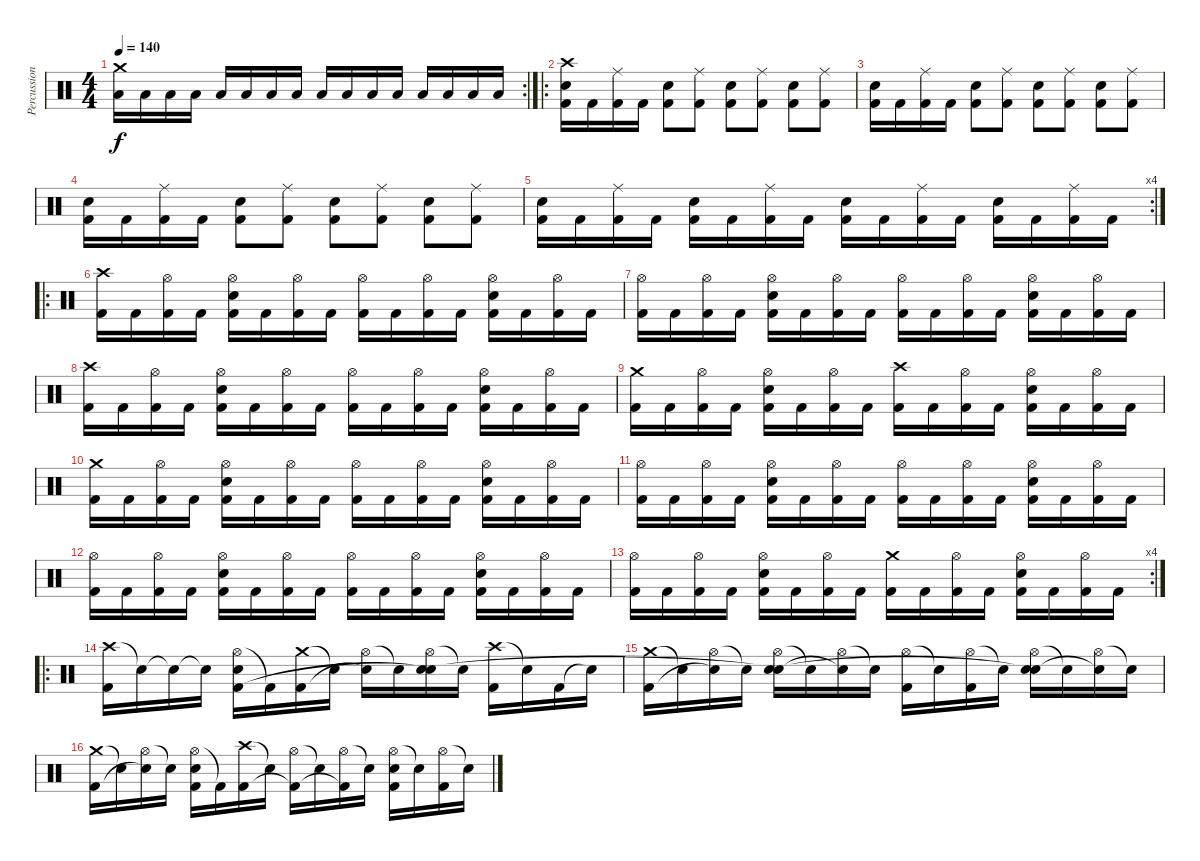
\track ("Percussion" "Percussion") {instrument percussion}
\staff {score}
\articulation defaults
\rc 2
\ts (4 4)
\tempo 140
\clef neutral
\ks c
("Crash medium (hit)" "Low Floor Tom (hit)").16{dy f} "Low Floor Tom (hit)".16 "Low Floor Tom (hit)".16 "Low Floor Tom (hit)".16 "Low Floor Tom (hit)".16 "Low Floor Tom (hit)".16 "Low Floor Tom (hit)".16 "Low Floor Tom (hit)".16 "Low Floor Tom (hit)".16 "Low Floor Tom (hit)".16 "Low Floor Tom (hit)".16 "Low Floor Tom (hit)".16 "Low Floor Tom (hit)".16 "Low Floor Tom (hit)".16 "Low Floor Tom (hit)".16 "Low Floor Tom (hit)".16 |
\ro
("Crash high (hit)" "Snare (hit) 2" "Kick (hit) 2").16 "Kick (hit) 2".16 ("Ride (middle)" "Kick (hit) 2").16 "Kick (hit) 2".16 ("Snare (hit) 2" "Kick (hit) 2").8 ("Ride (middle)" "Kick (hit) 2").8 ("Snare (hit) 2" "Kick (hit) 2").8 ("Ride (middle)" "Kick (hit) 2").8 ("Snare (hit) 2" "Kick (hit) 2").8 ("Ride (middle)" "Kick (hit) 2").8 |
("Snare (hit) 2" "Kick (hit) 2").16 "Kick (hit) 2".16 ("Ride (middle)" "Kick (hit) 2").16 "Kick (hit) 2".16 ("Snare (hit) 2" "Kick (hit) 2").8 ("Ride (middle)" "Kick (hit) 2").8 ("Snare (hit) 2" "Kick (hit) 2").8 ("Ride (middle)" "Kick (hit) 2").8 ("Snare (hit) 2" "Kick (hit) 2").8 ("Ride (middle)" "Kick (hit) 2").8 |
("Snare (hit) 2" "Kick (hit) 2").16 "Kick (hit) 2".16 ("Ride (middle)" "Kick (hit) 2").16 "Kick (hit) 2".16 ("Snare (hit) 2" "Kick (hit) 2").8 ("Ride (middle)" "Kick (hit) 2").8 ("Snare (hit) 2" "Kick (hit) 2").8 ("Ride (middle)" "Kick (hit) 2").8 ("Snare (hit) 2" "Kick (hit) 2").8 ("Ride (middle)" "Kick (hit) 2").8 |
\rc 4
("Snare (hit) 2" "Kick (hit) 2").16 "Kick (hit) 2".16 ("Ride (middle)" "Kick (hit) 2").16 "Kick (hit) 2".16 ("Snare (hit) 2" "Kick (hit) 2").16 "Kick (hit) 2".16 ("Ride (middle)" "Kick (hit) 2").16 "Kick (hit) 2".16 ("Snare (hit) 2" "Kick (hit) 2").16 "Kick (hit) 2".16 ("Ride (middle)" "Kick (hit) 2").16 "Kick (hit) 2".16 ("Snare (hit) 2" "Kick (hit) 2").16 "Kick (hit) 2".16 ("Ride (middle)" "Kick (hit) 2").16 "Kick (hit) 2".16 |
\ro
("Crash high (hit)" "Kick (hit) 2").16 "Kick (hit) 2".16 ("Hi-Hat (open)" "Kick (hit) 2").16 "Kick (hit) 2".16 ("Hi-Hat (open)" "Snare (hit) 2" "Kick (hit) 2").16 "Kick (hit) 2".16 ("Hi-Hat (open)" "Kick (hit) 2").16 "Kick (hit) 2".16 ("Hi-Hat (open)" "Kick (hit) 2").16 "Kick (hit) 2".16 ("Hi-Hat (open)" "Kick (hit) 2").16 "Kick (hit) 2".16 ("Hi-Hat (open)" "Snare (hit) 2" "Kick (hit) 2").16 "Kick (hit) 2".16 ("Hi-Hat (open)" "Kick (hit) 2").16 "Kick (hit) 2".16 |
("Hi-Hat (open)" "Kick (hit) 2").16 "Kick (hit) 2".16 ("Hi-Hat (open)" "Kick (hit) 2").16 "Kick (hit) 2".16 ("Hi-Hat (open)" "Snare (hit) 2" "Kick (hit) 2").16 "Kick (hit) 2".16 ("Hi-Hat (open)" "Kick (hit) 2").16 "Kick (hit) 2".16 ("Hi-Hat (open)" "Kick (hit) 2").16 "Kick (hit) 2".16 ("Hi-Hat (open)" "Kick (hit) 2").16 "Kick (hit) 2".16 ("Hi-Hat (open)" "Snare (hit) 2" "Kick (hit) 2").16 "Kick (hit) 2".16 ("Hi-Hat (open)" "Kick (hit) 2").16 "Kick (hit) 2".16 |
("Crash high (hit)" "Kick (hit) 2").16 "Kick (hit) 2".16 ("Hi-Hat (open)" "Kick (hit) 2").16 "Kick (hit) 2".16 ("Hi-Hat (open)" "Snare (hit) 2" "Kick (hit) 2").16 "Kick (hit) 2".16 ("Hi-Hat (open)" "Kick (hit) 2").16 "Kick (hit) 2".16 ("Hi-Hat (open)" "Kick (hit) 2").16 "Kick (hit) 2".16 ("Hi-Hat (open)" "Kick (hit) 2").16 "Kick (hit) 2".16 ("Hi-Hat (open)" "Snare (hit) 2" "Kick (hit) 2").16 "Kick (hit) 2".16 ("Hi-Hat (open)" "Kick (hit) 2").16 "Kick (hit) 2".16 |
("Crash medium (hit)" "Kick (hit) 2").16 "Kick (hit) 2".16 ("Hi-Hat (open)" "Kick (hit) 2").16 "Kick (hit) 2".16 ("Hi-Hat (open)" "Snare (hit) 2" "Kick (hit) 2").16 "Kick (hit) 2".16 ("Hi-Hat (open)" "Kick (hit) 2").16 "Kick (hit) 2".16 ("Crash high (hit)" "Kick (hit) 2").16 "Kick (hit) 2".16 ("Hi-Hat (open)" "Kick (hit) 2").16 "Kick (hit) 2".16 ("Hi-Hat (open)" "Snare (hit) 2" "Kick (hit) 2").16 "Kick (hit) 2".16 ("Hi-Hat (open)" "Kick (hit) 2").16 "Kick (hit) 2".16 |
("Crash medium (hit)" "Kick (hit) 2").16 "Kick (hit) 2".16 ("Hi-Hat (open)" "Kick (hit) 2").16 "Kick (hit) 2".16 ("Hi-Hat (open)" "Snare (hit) 2" "Kick (hit) 2").16 "Kick (hit) 2".16 ("Hi-Hat (open)" "Kick (hit) 2").16 "Kick (hit) 2".16 ("Hi-Hat (open)" "Kick (hit) 2").16 "Kick (hit) 2".16 ("Hi-Hat (open)" "Kick (hit) 2").16 "Kick (hit) 2".16 ("Hi-Hat (open)" "Snare (hit) 2" "Kick (hit) 2").16 "Kick (hit) 2".16 ("Hi-Hat (open)" "Kick (hit) 2").16 "Kick (hit) 2".16 |
("Hi-Hat (open)" "Kick (hit) 2").16 "Kick (hit) 2".16 ("Hi-Hat (open)" "Kick (hit) 2").16 "Kick (hit) 2".16 ("Hi-Hat (open)" "Snare (hit) 2" "Kick (hit) 2").16 "Kick (hit) 2".16 ("Hi-Hat (open)" "Kick (hit) 2").16 "Kick (hit) 2".16 ("Hi-Hat (open)" "Kick (hit) 2").16 "Kick (hit) 2".16 ("Hi-Hat (open)" "Kick (hit) 2").16 "Kick (hit) 2".16 ("Hi-Hat (open)" "Snare (hit) 2" "Kick (hit) 2").16 "Kick (hit) 2".16 ("Hi-Hat (open)" "Kick (hit) 2").16 "Kick (hit) 2".16 |
("Hi-Hat (open)" "Kick (hit) 2").16 "Kick (hit) 2".16 ("Hi-Hat (open)" "Kick (hit) 2").16 "Kick (hit) 2".16 ("Hi-Hat (open)" "Snare (hit) 2" "Kick (hit) 2").16 "Kick (hit) 2".16 ("Hi-Hat (open)" "Kick (hit) 2").16 "Kick (hit) 2".16 ("Hi-Hat (open)" "Kick (hit) 2").16 "Kick (hit) 2".16 ("Hi-Hat (open)" "Kick (hit) 2").16 "Kick (hit) 2".16 ("Hi-Hat (open)" "Snare (hit) 2" "Kick (hit) 2").16 "Kick (hit) 2".16 ("Hi-Hat (open)" "Kick (hit) 2").16 "Kick (hit) 2".16 |
\rc 4
("Hi-Hat (open)" "Kick (hit) 2").16 "Kick (hit) 2".16 ("Hi-Hat (open)" "Kick (hit) 2").16 "Kick (hit) 2".16 ("Hi-Hat (open)" "Snare (hit) 2" "Kick (hit) 2").16 "Kick (hit) 2".16 ("Hi-Hat (open)" "Kick (hit) 2").16 "Kick (hit) 2".16 ("Crash medium (hit)" "Kick (hit) 2").16 "Kick (hit) 2".16 ("Hi-Hat (open)" "Kick (hit) 2").16 "Kick (hit) 2".16 ("Hi-Hat (open)" "Snare (hit) 2" "Kick (hit) 2").16 "Kick (hit) 2".16 ("Hi-Hat (open)" "Kick (hit) 2").16 "Kick (hit) 2".16 |
\ro
("Crash high (hit)" "Kick (hit) 2").16 "Snare (hit)"{t}.16 "Snare (hit)"{t}.16 "Snare (hit)"{t}.16 ("Hi-Hat (open)" "Snare (hit) 2" "Kick (hit) 2").16 "Kick (hit) 2"{t}.16 ("Crash medium (hit)" "Kick (hit) 2").16 "Snare (hit)"{t}.16 ("Hi-Hat (open)" "Snare (hit)"{t}).16 "Snare (hit)"{t}.16 ("Hi-Hat (open)" "Snare (hit) 2" "Snare (hit)"{t}).16 "Snare (hit)"{t}.16 ("Crash high (hit)" "Kick (hit) 2").16 "Snare (hit)"{t}.16 "Kick (hit) 2".16 "Snare (hit)"{t}.16 |
("Crash medium (hit)" "Kick (hit) 2").16 "Snare (hit)"{t}.16 ("Hi-Hat (open)" "Snare (hit)"{t}).16 "Snare (hit)"{t}.16 ("Hi-Hat (open)" "Snare (hit) 2" "Snare (hit)"{t}).16 "Snare (hit)"{t}.16 ("Hi-Hat (open)" "Snare (hit)"{t}).16 "Snare (hit)"{t}.16 ("Hi-Hat (open)" "Kick (hit) 2").16 "Snare (hit)"{t}.16 ("Hi-Hat (open)" "Kick (hit) 2").16 "Snare (hit)"{t}.16 ("Hi-Hat (open)" "Snare (hit) 2" "Snare (hit)"{t}).16 "Snare (hit)"{t}.16 ("Hi-Hat (open)" "Snare (hit)"{t}).16 "Snare (hit)"{t}.16 |
("Crash medium (hit)" "Kick (hit) 2").16 "Snare (hit)"{t}.16 ("Hi-Hat (open)" "Snare (hit)"{t}).16 "Snare (hit)"{t}.16 ("Hi-Hat (open)" "Snare (hit) 2" "Kick (hit) 2").16 "Kick (hit) 2"{t}.16 ("Crash high (hit)" "Kick (hit) 2").16 "Snare (hit)"{t}.16 ("Hi-Hat (open)" "Kick (hit) 2"{t}).16 "Snare (hit)"{t}.16 ("Hi-Hat (open)" "Kick (hit) 2"{t}).16 "Snare (hit)"{t}.16 ("Hi-Hat (open)" "Snare (hit) 2" "Kick (hit) 2").16 "Snare (hit)"{t}.16 ("Hi-Hat (open)" "Kick (hit) 2").16 "Snare (hit)"{t}.16
